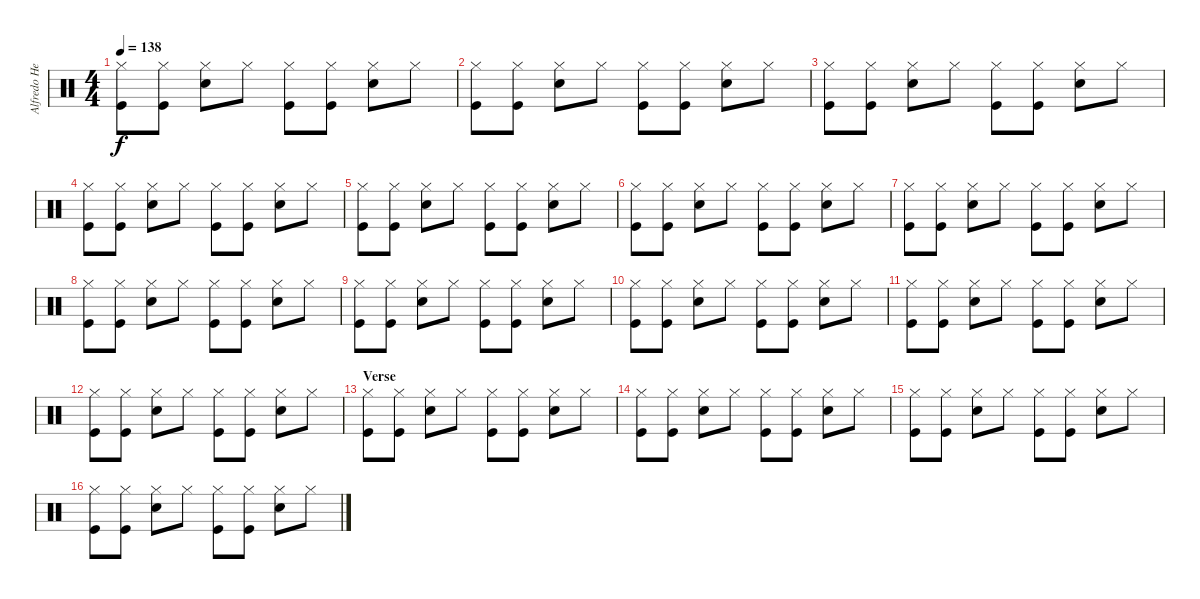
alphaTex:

\track ("Alfredo Hernandez" "Alfredo He") {instrument percussion}
\staff {score}
\articulation defaults
\ts (4 4)
\tempo 138
\clef neutral
\ks c
("Kick (hit)" "Hi-Hat (closed)").8{dy f} ("Kick (hit)" "Hi-Hat (closed)").8 ("Snare (hit) 2" "Hi-Hat (closed)").8 "Hi-Hat (closed)".8 ("Kick (hit)" "Hi-Hat (closed)").8 ("Kick (hit)" "Hi-Hat (closed)").8 ("Snare (hit) 2" "Hi-Hat (closed)").8 "Hi-Hat (closed)".8 |
("Kick (hit)" "Hi-Hat (closed)").8 ("Kick (hit)" "Hi-Hat (closed)").8 ("Snare (hit) 2" "Hi-Hat (closed)").8 "Hi-Hat (closed)".8 ("Kick (hit)" "Hi-Hat (closed)").8 ("Kick (hit)" "Hi-Hat (closed)").8 ("Snare (hit) 2" "Hi-Hat (closed)").8 "Hi-Hat (closed)".8 |
("Kick (hit)" "Hi-Hat (closed)").8 ("Kick (hit)" "Hi-Hat (closed)").8 ("Snare (hit) 2" "Hi-Hat (closed)").8 "Hi-Hat (closed)".8 ("Kick (hit)" "Hi-Hat (closed)").8 ("Kick (hit)" "Hi-Hat (closed)").8 ("Snare (hit) 2" "Hi-Hat (closed)").8 "Hi-Hat (closed)".8 |
("Kick (hit)" "Hi-Hat (closed)").8 ("Kick (hit)" "Hi-Hat (closed)").8 ("Snare (hit) 2" "Hi-Hat (closed)").8 "Hi-Hat (closed)".8 ("Kick (hit)" "Hi-Hat (closed)").8 ("Kick (hit)" "Hi-Hat (closed)").8 ("Snare (hit) 2" "Hi-Hat (closed)").8 "Hi-Hat (closed)".8 |
("Kick (hit)" "Hi-Hat (closed)").8 ("Kick (hit)" "Hi-Hat (closed)").8 ("Snare (hit) 2" "Hi-Hat (closed)").8 "Hi-Hat (closed)".8 ("Kick (hit)" "Hi-Hat (closed)").8 ("Kick (hit)" "Hi-Hat (closed)").8 ("Snare (hit) 2" "Hi-Hat (closed)").8 "Hi-Hat (closed)".8 |
("Kick (hit)" "Hi-Hat (closed)").8 ("Kick (hit)" "Hi-Hat (closed)").8 ("Snare (hit) 2" "Hi-Hat (closed)").8 "Hi-Hat (closed)".8 ("Kick (hit)" "Hi-Hat (closed)").8 ("Kick (hit)" "Hi-Hat (closed)").8 ("Snare (hit) 2" "Hi-Hat (closed)").8 "Hi-Hat (closed)".8 |
("Kick (hit)" "Hi-Hat (closed)").8 ("Kick (hit)" "Hi-Hat (closed)").8 ("Snare (hit) 2" "Hi-Hat (closed)").8 "Hi-Hat (closed)".8 ("Kick (hit)" "Hi-Hat (closed)").8 ("Kick (hit)" "Hi-Hat (closed)").8 ("Snare (hit) 2" "Hi-Hat (closed)").8 "Hi-Hat (closed)".8 |
("Kick (hit)" "Hi-Hat (closed)").8 ("Kick (hit)" "Hi-Hat (closed)").8 ("Snare (hit) 2" "Hi-Hat (closed)").8 "Hi-Hat (closed)".8 ("Kick (hit)" "Hi-Hat (closed)").8 ("Kick (hit)" "Hi-Hat (closed)").8 ("Snare (hit) 2" "Hi-Hat (closed)").8 "Hi-Hat (closed)".8 |
("Kick (hit)" "Hi-Hat (closed)").8 ("Kick (hit)" "Hi-Hat (closed)").8 ("Snare (hit) 2" "Hi-Hat (closed)").8 "Hi-Hat (closed)".8 ("Kick (hit)" "Hi-Hat (closed)").8 ("Kick (hit)" "Hi-Hat (closed)").8 ("Snare (hit) 2" "Hi-Hat (closed)").8 "Hi-Hat (closed)".8 |
("Kick (hit)" "Hi-Hat (closed)").8 ("Kick (hit)" "Hi-Hat (closed)").8 ("Snare (hit) 2" "Hi-Hat (closed)").8 "Hi-Hat (closed)".8 ("Kick (hit)" "Hi-Hat (closed)").8 ("Kick (hit)" "Hi-Hat (closed)").8 ("Snare (hit) 2" "Hi-Hat (closed)").8 "Hi-Hat (closed)".8 |
("Kick (hit)" "Hi-Hat (closed)").8 ("Kick (hit)" "Hi-Hat (closed)").8 ("Snare (hit) 2" "Hi-Hat (closed)").8 "Hi-Hat (closed)".8 ("Kick (hit)" "Hi-Hat (closed)").8 ("Kick (hit)" "Hi-Hat (closed)").8 ("Snare (hit) 2" "Hi-Hat (closed)").8 "Hi-Hat (closed)".8 |
("Kick (hit)" "Hi-Hat (closed)").8 ("Kick (hit)" "Hi-Hat (closed)").8 ("Snare (hit) 2" "Hi-Hat (closed)").8 "Hi-Hat (closed)".8 ("Kick (hit)" "Hi-Hat (closed)").8 ("Kick (hit)" "Hi-Hat (closed)").8 ("Snare (hit) 2" "Hi-Hat (closed)").8 "Hi-Hat (closed)".8 |
\section ("" "Verse")
("Kick (hit)" "Hi-Hat (closed)").8 ("Kick (hit)" "Hi-Hat (closed)").8 ("Snare (hit) 2" "Hi-Hat (closed)").8 "Hi-Hat (closed)".8 ("Kick (hit)" "Hi-Hat (closed)").8 ("Kick (hit)" "Hi-Hat (closed)").8 ("Snare (hit) 2" "Hi-Hat (closed)").8 "Hi-Hat (closed)".8 |
("Kick (hit)" "Hi-Hat (closed)").8 ("Kick (hit)" "Hi-Hat (closed)").8 ("Snare (hit) 2" "Hi-Hat (closed)").8 "Hi-Hat (closed)".8 ("Kick (hit)" "Hi-Hat (closed)").8 ("Kick (hit)" "Hi-Hat (closed)").8 ("Snare (hit) 2" "Hi-Hat (closed)").8 "Hi-Hat (closed)".8 |
("Kick (hit)" "Hi-Hat (closed)").8 ("Kick (hit)" "Hi-Hat (closed)").8 ("Snare (hit) 2" "Hi-Hat (closed)").8 "Hi-Hat (closed)".8 ("Kick (hit)" "Hi-Hat (closed)").8 ("Kick (hit)" "Hi-Hat (closed)").8 ("Snare (hit) 2" "Hi-Hat (closed)").8 "Hi-Hat (closed)".8 |
("Kick (hit)" "Hi-Hat (closed)").8 ("Kick (hit)" "Hi-Hat (closed)").8 ("Snare (hit) 2" "Hi-Hat (closed)").8 "Hi-Hat (closed)".8 ("Kick (hit)" "Hi-Hat (closed)").8 ("Kick (hit)" "Hi-Hat (closed)").8 ("Snare (hit) 2" "Hi-Hat (closed)").8 "Hi-Hat (closed)".8
